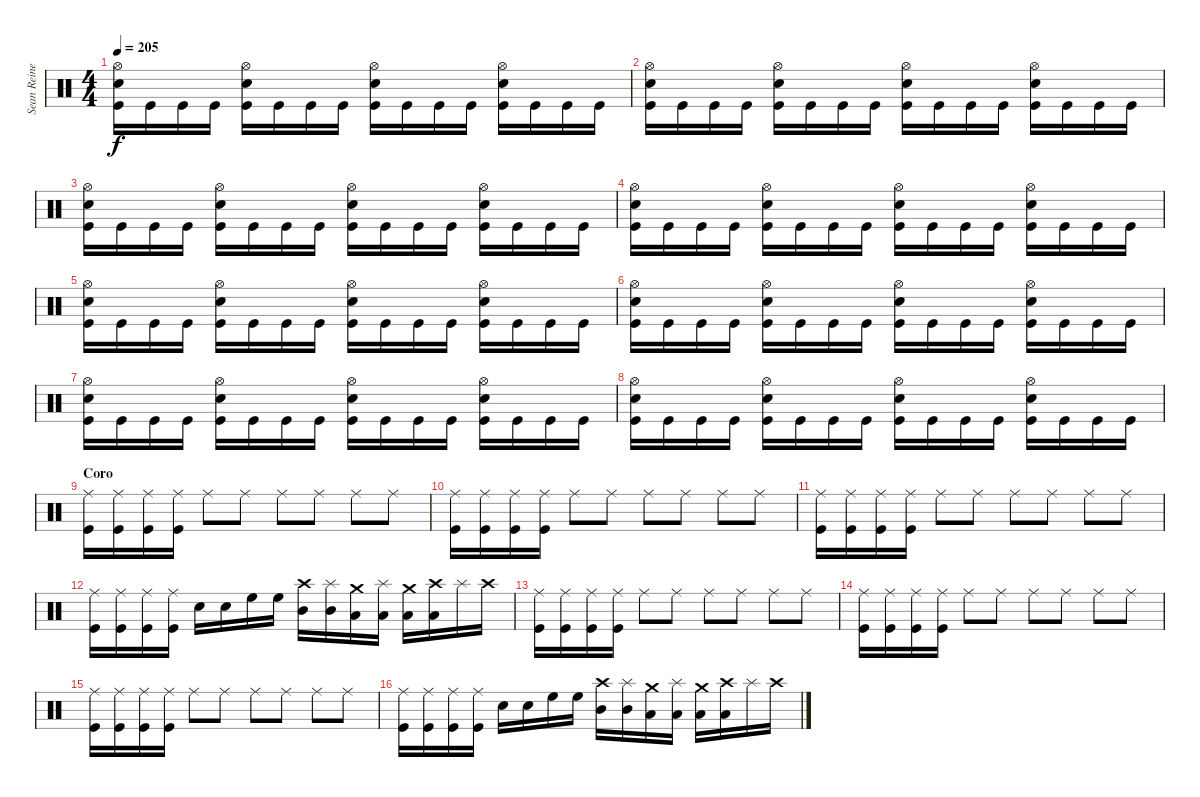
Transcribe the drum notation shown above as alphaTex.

\track ("Sean Reinert" "Sean Reine") {instrument percussion}
\staff {score}
\articulation defaults
\ts (4 4)
\tempo 205
\clef neutral
\ks c
("Hi-Hat (open)" "Snare (hit) 2" "Kick (hit)").16{dy f} "Kick (hit)".16 "Kick (hit)".16 "Kick (hit)".16 ("Hi-Hat (open)" "Snare (hit) 2" "Kick (hit)").16 "Kick (hit)".16 "Kick (hit)".16 "Kick (hit)".16 ("Hi-Hat (open)" "Snare (hit) 2" "Kick (hit)").16 "Kick (hit)".16 "Kick (hit)".16 "Kick (hit)".16 ("Hi-Hat (open)" "Snare (hit) 2" "Kick (hit)").16 "Kick (hit)".16 "Kick (hit)".16 "Kick (hit)".16 |
("Hi-Hat (open)" "Snare (hit) 2" "Kick (hit)").16 "Kick (hit)".16 "Kick (hit)".16 "Kick (hit)".16 ("Hi-Hat (open)" "Snare (hit) 2" "Kick (hit)").16 "Kick (hit)".16 "Kick (hit)".16 "Kick (hit)".16 ("Hi-Hat (open)" "Snare (hit) 2" "Kick (hit)").16 "Kick (hit)".16 "Kick (hit)".16 "Kick (hit)".16 ("Hi-Hat (open)" "Snare (hit) 2" "Kick (hit)").16 "Kick (hit)".16 "Kick (hit)".16 "Kick (hit)".16 |
("Hi-Hat (open)" "Snare (hit) 2" "Kick (hit)").16 "Kick (hit)".16 "Kick (hit)".16 "Kick (hit)".16 ("Hi-Hat (open)" "Snare (hit) 2" "Kick (hit)").16 "Kick (hit)".16 "Kick (hit)".16 "Kick (hit)".16 ("Hi-Hat (open)" "Snare (hit) 2" "Kick (hit)").16 "Kick (hit)".16 "Kick (hit)".16 "Kick (hit)".16 ("Hi-Hat (open)" "Snare (hit) 2" "Kick (hit)").16 "Kick (hit)".16 "Kick (hit)".16 "Kick (hit)".16 |
("Hi-Hat (open)" "Snare (hit) 2" "Kick (hit)").16 "Kick (hit)".16 "Kick (hit)".16 "Kick (hit)".16 ("Hi-Hat (open)" "Snare (hit) 2" "Kick (hit)").16 "Kick (hit)".16 "Kick (hit)".16 "Kick (hit)".16 ("Hi-Hat (open)" "Snare (hit) 2" "Kick (hit)").16 "Kick (hit)".16 "Kick (hit)".16 "Kick (hit)".16 ("Hi-Hat (open)" "Snare (hit) 2" "Kick (hit)").16 "Kick (hit)".16 "Kick (hit)".16 "Kick (hit)".16 |
("Hi-Hat (open)" "Snare (hit) 2" "Kick (hit)").16 "Kick (hit)".16 "Kick (hit)".16 "Kick (hit)".16 ("Hi-Hat (open)" "Snare (hit) 2" "Kick (hit)").16 "Kick (hit)".16 "Kick (hit)".16 "Kick (hit)".16 ("Hi-Hat (open)" "Snare (hit) 2" "Kick (hit)").16 "Kick (hit)".16 "Kick (hit)".16 "Kick (hit)".16 ("Hi-Hat (open)" "Snare (hit) 2" "Kick (hit)").16 "Kick (hit)".16 "Kick (hit)".16 "Kick (hit)".16 |
("Hi-Hat (open)" "Snare (hit) 2" "Kick (hit)").16 "Kick (hit)".16 "Kick (hit)".16 "Kick (hit)".16 ("Hi-Hat (open)" "Snare (hit) 2" "Kick (hit)").16 "Kick (hit)".16 "Kick (hit)".16 "Kick (hit)".16 ("Hi-Hat (open)" "Snare (hit) 2" "Kick (hit)").16 "Kick (hit)".16 "Kick (hit)".16 "Kick (hit)".16 ("Hi-Hat (open)" "Snare (hit) 2" "Kick (hit)").16 "Kick (hit)".16 "Kick (hit)".16 "Kick (hit)".16 |
("Hi-Hat (open)" "Snare (hit) 2" "Kick (hit)").16 "Kick (hit)".16 "Kick (hit)".16 "Kick (hit)".16 ("Hi-Hat (open)" "Snare (hit) 2" "Kick (hit)").16 "Kick (hit)".16 "Kick (hit)".16 "Kick (hit)".16 ("Hi-Hat (open)" "Snare (hit) 2" "Kick (hit)").16 "Kick (hit)".16 "Kick (hit)".16 "Kick (hit)".16 ("Hi-Hat (open)" "Snare (hit) 2" "Kick (hit)").16 "Kick (hit)".16 "Kick (hit)".16 "Kick (hit)".16 |
("Hi-Hat (open)" "Snare (hit) 2" "Kick (hit)").16 "Kick (hit)".16 "Kick (hit)".16 "Kick (hit)".16 ("Hi-Hat (open)" "Snare (hit) 2" "Kick (hit)").16 "Kick (hit)".16 "Kick (hit)".16 "Kick (hit)".16 ("Hi-Hat (open)" "Snare (hit) 2" "Kick (hit)").16 "Kick (hit)".16 "Kick (hit)".16 "Kick (hit)".16 ("Hi-Hat (open)" "Snare (hit) 2" "Kick (hit)").16 "Kick (hit)".16 "Kick (hit)".16 "Kick (hit)".16 |
\section ("" "Coro")
("Ride (middle)" "Kick (hit)").16 ("Ride (middle)" "Kick (hit)").16 ("Ride (middle)" "Kick (hit)").16 ("Ride (middle)" "Kick (hit)").16 "Ride (middle)".8 "Ride (middle)".8 "Ride (middle)".8 "Ride (middle)".8 "Ride (middle)".8 "Ride (middle)".8 |
("Ride (middle)" "Kick (hit)").16 ("Ride (middle)" "Kick (hit)").16 ("Ride (middle)" "Kick (hit)").16 ("Ride (middle)" "Kick (hit)").16 "Ride (middle)".8 "Ride (middle)".8 "Ride (middle)".8 "Ride (middle)".8 "Ride (middle)".8 "Ride (middle)".8 |
("Ride (middle)" "Kick (hit)").16 ("Ride (middle)" "Kick (hit)").16 ("Ride (middle)" "Kick (hit)").16 ("Ride (middle)" "Kick (hit)").16 "Ride (middle)".8 "Ride (middle)".8 "Ride (middle)".8 "Ride (middle)".8 "Ride (middle)".8 "Ride (middle)".8 |
("Ride (middle)" "Kick (hit)").16 ("Ride (middle)" "Kick (hit)").16 ("Ride (middle)" "Kick (hit)").16 ("Ride (middle)" "Kick (hit)").16 "Snare (hit) 2".16 "Snare (hit) 2".16 "High Floor Tom (hit)".16 "High Floor Tom (hit)".16 ("Crash high (hit)" "Mid Tom (hit)").16 ("Splash (hit)" "Mid Tom (hit)").16 ("Crash medium (hit)" "Low Tom (hit)").16 ("Splash (hit)" "Low Tom (hit)").16 ("Crash medium (hit)" "Low Floor Tom (hit)").16 ("Crash high (hit)" "Low Floor Tom (hit)").16 "Splash (hit)".16 "Crash high (hit)".16 |
("Ride (middle)" "Kick (hit)").16 ("Ride (middle)" "Kick (hit)").16 ("Ride (middle)" "Kick (hit)").16 ("Ride (middle)" "Kick (hit)").16 "Ride (middle)".8 "Ride (middle)".8 "Ride (middle)".8 "Ride (middle)".8 "Ride (middle)".8 "Ride (middle)".8 |
("Ride (middle)" "Kick (hit)").16 ("Ride (middle)" "Kick (hit)").16 ("Ride (middle)" "Kick (hit)").16 ("Ride (middle)" "Kick (hit)").16 "Ride (middle)".8 "Ride (middle)".8 "Ride (middle)".8 "Ride (middle)".8 "Ride (middle)".8 "Ride (middle)".8 |
("Ride (middle)" "Kick (hit)").16 ("Ride (middle)" "Kick (hit)").16 ("Ride (middle)" "Kick (hit)").16 ("Ride (middle)" "Kick (hit)").16 "Ride (middle)".8 "Ride (middle)".8 "Ride (middle)".8 "Ride (middle)".8 "Ride (middle)".8 "Ride (middle)".8 |
("Ride (middle)" "Kick (hit)").16 ("Ride (middle)" "Kick (hit)").16 ("Ride (middle)" "Kick (hit)").16 ("Ride (middle)" "Kick (hit)").16 "Snare (hit) 2".16 "Snare (hit) 2".16 "High Floor Tom (hit)".16 "High Floor Tom (hit)".16 ("Crash high (hit)" "Mid Tom (hit)").16 ("Splash (hit)" "Mid Tom (hit)").16 ("Crash medium (hit)" "Low Tom (hit)").16 ("Splash (hit)" "Low Tom (hit)").16 ("Crash medium (hit)" "Low Floor Tom (hit)").16 ("Crash high (hit)" "Low Floor Tom (hit)").16 "Splash (hit)".16 "Crash high (hit)".16
